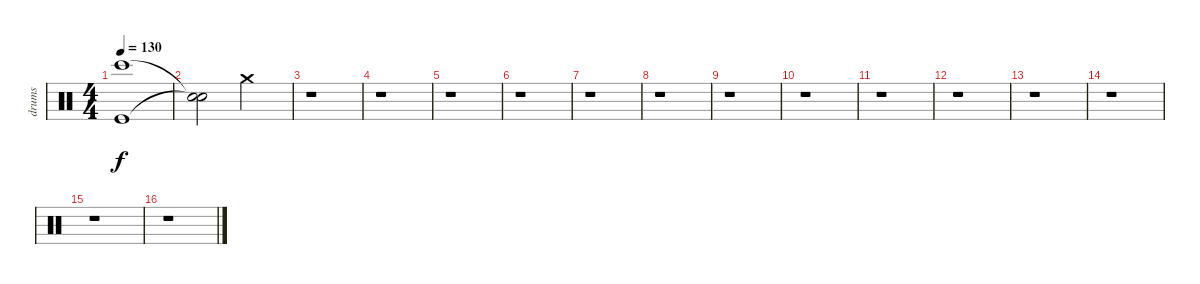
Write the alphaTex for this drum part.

\track ("drums" "drums") {instrument percussion}
\staff {score}
\articulation defaults
\ts (4 4)
\tempo 130
\clef neutral
\ks c
("Bongo High (hit)" "Kick (hit)").1{dy f} |
("Snare (hit)"{t} "Snare (hit)"{t}).2 "Crash medium (hit)".2 |
r.1 |
r.1 |
r.1 |
r.1 |
r.1 |
r.1 |
r.1 |
r.1 |
r.1 |
r.1 |
r.1 |
r.1 |
r.1 |
r.1
